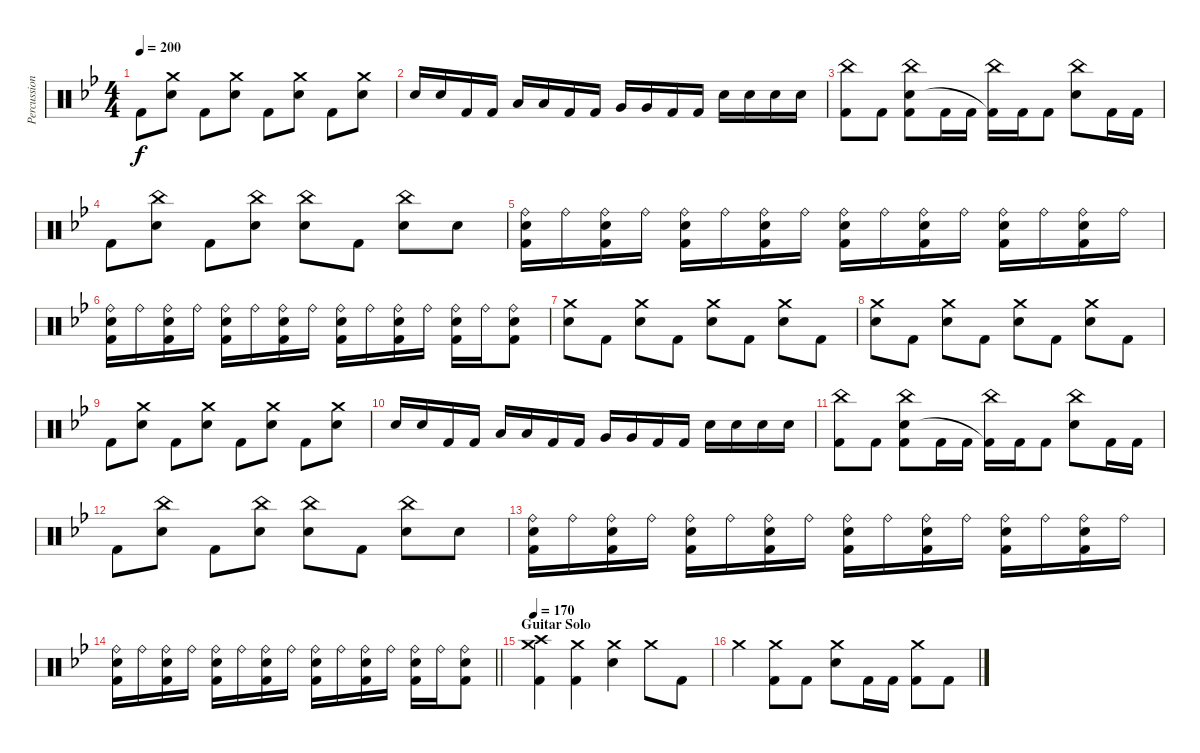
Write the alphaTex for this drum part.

\track ("Percussion" "Percussion") {instrument percussion}
\staff {score}
\articulation defaults
\ts (4 4)
\tempo 200
\clef neutral
\ks bb "Kick (hit) 2".8{dy f}
("Crash medium (hit)" "Electric Snare (hit)").8 "Kick (hit) 2".8 ("Crash medium (hit)" "Electric Snare (hit)").8 "Kick (hit) 2".8 ("Crash medium (hit)" "Electric Snare (hit)").8 "Kick (hit) 2".8 ("Crash medium (hit)" "Electric Snare (hit)").8 |
"Electric Snare (hit)".16 "Electric Snare (hit)".16 "Kick (hit) 2".16 "Kick (hit) 2".16 "Low Tom (hit)".16 "Low Tom (hit)".16 "Kick (hit) 2".16 "Kick (hit) 2".16 "Very Low Tom (hit)".16 "Very Low Tom (hit)".16 "Kick (hit) 2".16 "Kick (hit) 2".16 "Electric Snare (hit)".16 "Electric Snare (hit)".16 "Electric Snare (hit)".16 "Electric Snare (hit)".16 |
("China (hit)" "Kick (hit) 2").8 "Kick (hit) 2".8 ("China (hit)" "Electric Snare (hit)" "Kick (hit) 2").8 "Kick (hit) 2".16 "Kick (hit) 2".16 ("China (hit)" "Kick (hit) 2"{t}).16 "Kick (hit) 2".16 "Kick (hit) 2".8 ("China (hit)" "Electric Snare (hit)").8 "Kick (hit) 2".16 "Kick (hit) 2".16 |
"Kick (hit) 2".8 ("China (hit)" "Electric Snare (hit)").8 "Kick (hit) 2".8 ("China (hit)" "Electric Snare (hit)").8 ("China (hit)" "Electric Snare (hit)").8 "Kick (hit) 2".8 ("China (hit)" "Electric Snare (hit)").8 "Electric Snare (hit)".8 |
("Ride (bell)" "Electric Snare (hit)" "Kick (hit) 2").16 "Ride (bell)".16 ("Ride (bell)" "Electric Snare (hit)" "Kick (hit) 2").16 "Ride (bell)".16 ("Ride (bell)" "Electric Snare (hit)" "Kick (hit) 2").16 "Ride (bell)".16 ("Ride (bell)" "Electric Snare (hit)" "Kick (hit) 2").16 "Ride (bell)".16 ("Ride (bell)" "Electric Snare (hit)" "Kick (hit) 2").16 "Ride (bell)".16 ("Ride (bell)" "Electric Snare (hit)" "Kick (hit) 2").16 "Ride (bell)".16 ("Ride (bell)" "Electric Snare (hit)" "Kick (hit) 2").16 "Ride (bell)".16 ("Ride (bell)" "Electric Snare (hit)" "Kick (hit) 2").16 "Ride (bell)".16 |
("Ride (bell)" "Electric Snare (hit)" "Kick (hit) 2").16 "Ride (bell)".16 ("Ride (bell)" "Electric Snare (hit)" "Kick (hit) 2").16 "Ride (bell)".16 ("Ride (bell)" "Electric Snare (hit)" "Kick (hit) 2").16 "Ride (bell)".16 ("Ride (bell)" "Electric Snare (hit)" "Kick (hit) 2").16 "Ride (bell)".16 ("Ride (bell)" "Electric Snare (hit)" "Kick (hit) 2").16 "Ride (bell)".16 ("Ride (bell)" "Electric Snare (hit)" "Kick (hit) 2").16 "Ride (bell)".16 ("Ride (bell)" "Electric Snare (hit)" "Kick (hit) 2").16 "Ride (bell)".16 ("Ride (bell)" "Electric Snare (hit)" "Kick (hit) 2").8 |
("Crash medium (hit)" "Electric Snare (hit)").8 "Kick (hit) 2".8 ("Crash medium (hit)" "Electric Snare (hit)").8 "Kick (hit) 2".8 ("Crash medium (hit)" "Electric Snare (hit)").8 "Kick (hit) 2".8 ("Crash medium (hit)" "Electric Snare (hit)").8 "Kick (hit) 2".8 |
("Crash medium (hit)" "Electric Snare (hit)").8 "Kick (hit) 2".8 ("Crash medium (hit)" "Electric Snare (hit)").8 "Kick (hit) 2".8 ("Crash medium (hit)" "Electric Snare (hit)").8 "Kick (hit) 2".8 ("Crash medium (hit)" "Electric Snare (hit)").8 "Kick (hit) 2".8 |
"Kick (hit) 2".8 ("Crash medium (hit)" "Electric Snare (hit)").8 "Kick (hit) 2".8 ("Crash medium (hit)" "Electric Snare (hit)").8 "Kick (hit) 2".8 ("Crash medium (hit)" "Electric Snare (hit)").8 "Kick (hit) 2".8 ("Crash medium (hit)" "Electric Snare (hit)").8 |
"Electric Snare (hit)".16 "Electric Snare (hit)".16 "Kick (hit) 2".16 "Kick (hit) 2".16 "Low Tom (hit)".16 "Low Tom (hit)".16 "Kick (hit) 2".16 "Kick (hit) 2".16 "Very Low Tom (hit)".16 "Very Low Tom (hit)".16 "Kick (hit) 2".16 "Kick (hit) 2".16 "Electric Snare (hit)".16 "Electric Snare (hit)".16 "Electric Snare (hit)".16 "Electric Snare (hit)".16 |
("China (hit)" "Kick (hit) 2").8 "Kick (hit) 2".8 ("China (hit)" "Electric Snare (hit)" "Kick (hit) 2").8 "Kick (hit) 2".16 "Kick (hit) 2".16 ("China (hit)" "Kick (hit) 2"{t}).16 "Kick (hit) 2".16 "Kick (hit) 2".8 ("China (hit)" "Electric Snare (hit)").8 "Kick (hit) 2".16 "Kick (hit) 2".16 |
"Kick (hit) 2".8 ("China (hit)" "Electric Snare (hit)").8 "Kick (hit) 2".8 ("China (hit)" "Electric Snare (hit)").8 ("China (hit)" "Electric Snare (hit)").8 "Kick (hit) 2".8 ("China (hit)" "Electric Snare (hit)").8 "Electric Snare (hit)".8 |
("Ride (bell)" "Electric Snare (hit)" "Kick (hit) 2").16 "Ride (bell)".16 ("Ride (bell)" "Electric Snare (hit)" "Kick (hit) 2").16 "Ride (bell)".16 ("Ride (bell)" "Electric Snare (hit)" "Kick (hit) 2").16 "Ride (bell)".16 ("Ride (bell)" "Electric Snare (hit)" "Kick (hit) 2").16 "Ride (bell)".16 ("Ride (bell)" "Electric Snare (hit)" "Kick (hit) 2").16 "Ride (bell)".16 ("Ride (bell)" "Electric Snare (hit)" "Kick (hit) 2").16 "Ride (bell)".16 ("Ride (bell)" "Electric Snare (hit)" "Kick (hit) 2").16 "Ride (bell)".16 ("Ride (bell)" "Electric Snare (hit)" "Kick (hit) 2").16 "Ride (bell)".16 |
\barLineRight lightlight
("Ride (bell)" "Electric Snare (hit)" "Kick (hit) 2").16 "Ride (bell)".16 ("Ride (bell)" "Electric Snare (hit)" "Kick (hit) 2").16 "Ride (bell)".16 ("Ride (bell)" "Electric Snare (hit)" "Kick (hit) 2").16 "Ride (bell)".16 ("Ride (bell)" "Electric Snare (hit)" "Kick (hit) 2").16 "Ride (bell)".16 ("Ride (bell)" "Electric Snare (hit)" "Kick (hit) 2").16 "Ride (bell)".16 ("Ride (bell)" "Electric Snare (hit)" "Kick (hit) 2").16 "Ride (bell)".16 ("Ride (bell)" "Electric Snare (hit)" "Kick (hit) 2").16 "Ride (bell)".16 ("Ride (bell)" "Electric Snare (hit)" "Kick (hit) 2").8 |
\section ("" "Guitar Solo")
\tempo 170
("Crash medium (hit)" "Crash high (hit)" "Kick (hit) 2").4 ("Crash medium (hit)" "Kick (hit) 2").4 ("Crash medium (hit)" "Electric Snare (hit)").4 "Crash medium (hit)".8 "Kick (hit) 2".8 |
"Crash medium (hit)".4 ("Crash medium (hit)" "Kick (hit) 2").8 "Kick (hit) 2".8 ("Crash medium (hit)" "Electric Snare (hit)").8 "Kick (hit) 2".16 "Kick (hit) 2".16 ("Crash medium (hit)" "Kick (hit) 2").8 "Kick (hit) 2".8
